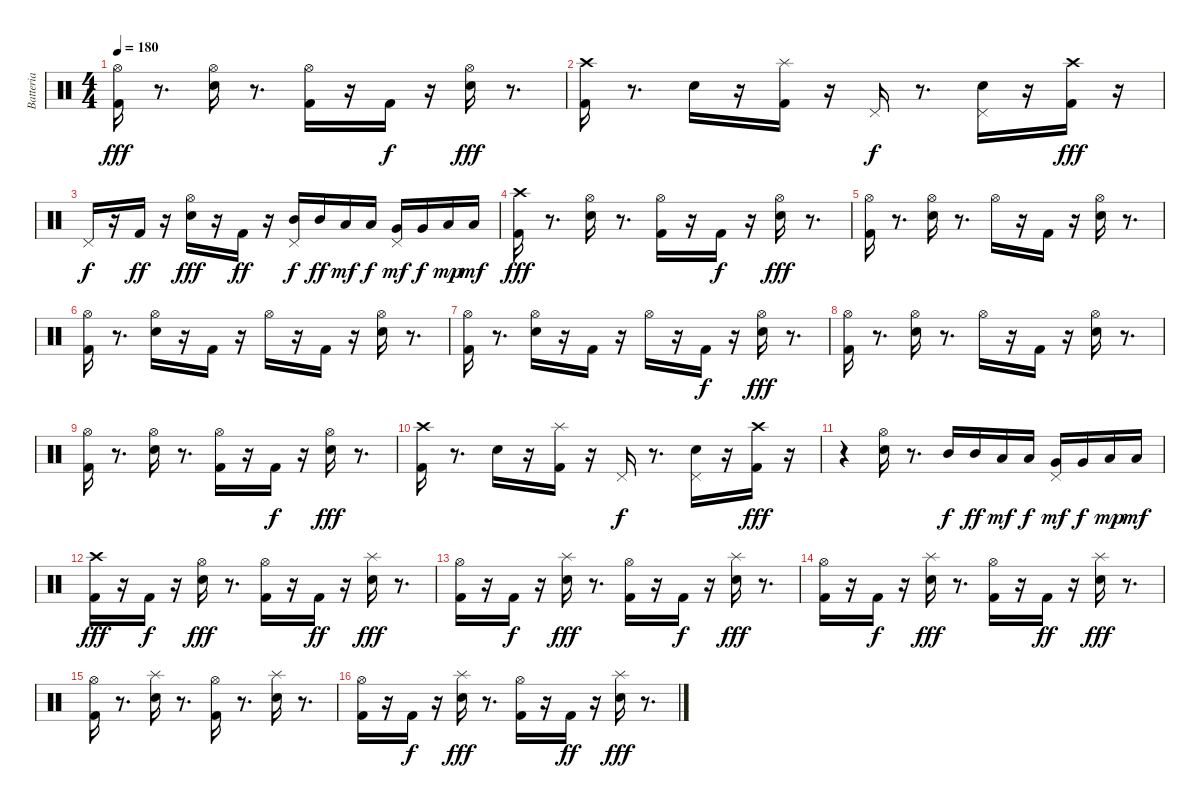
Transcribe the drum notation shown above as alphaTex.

\track ("Batteria" "Batteria") {instrument percussion}
\staff {score}
\articulation defaults
\ts (4 4)
\tempo 180
\clef neutral
\ks c
("Hi-Hat (open)" "Kick (hit) 2").16{dy fff} r.8{d} ("Electric Snare (hit)" "Hi-Hat (open)").16 r.8{d} ("Hi-Hat (open)" "Kick (hit) 2").16 r.16 "Kick (hit) 2".16{dy f} r.16 ("Hi-Hat (open)" "Electric Snare (hit)").16{dy fff} r.8{d} |
("Kick (hit) 2" "Crash high (hit)").16 r.8{d} "Electric Snare (hit)".16 r.16 ("Kick (hit) 2" "Splash (hit)").16 r.16 "Pedal Hi-Hat (hit)".16{dy f} r.8{d} ("Electric Snare (hit)" "Pedal Hi-Hat (hit)").16 r.16 ("Kick (hit) 2" "Crash high (hit)").16{dy fff} r.16 |
"Pedal Hi-Hat (hit)".16{dy f} r.16 "Kick (hit) 2".16{dy ff} r.16 ("Hi-Hat (open)" "Electric Snare (hit)").16{dy fff} r.16 "Kick (hit) 2".16{dy ff} r.16 ("Mid Tom (hit)" "Pedal Hi-Hat (hit)").16{dy f} "Mid Tom (hit)".16{dy ff} "Low Tom (hit)".16{dy mf} "Low Tom (hit)".16{dy f} ("Very Low Tom (hit)" "Pedal Hi-Hat (hit)").16{dy mf} "Very Low Tom (hit)".16{dy f} "Low Floor Tom (hit)".16{dy mp} "Low Floor Tom (hit)".16{dy mf} |
("Crash high (hit)" "Kick (hit) 2").16{dy fff} r.8{d} ("Electric Snare (hit)" "Hi-Hat (open)").16 r.8{d} ("Kick (hit) 2" "Hi-Hat (open)").16 r.16 "Kick (hit) 2".16{dy f} r.16 ("Electric Snare (hit)" "Hi-Hat (open)").16{dy fff} r.8{d} |
("Kick (hit) 2" "Hi-Hat (open)").16 r.8{d} ("Electric Snare (hit)" "Hi-Hat (open)").16 r.8{d} "Hi-Hat (open)".16 r.16 "Kick (hit) 2".16 r.16 ("Hi-Hat (open)" "Electric Snare (hit)").16 r.8{d} |
("Kick (hit) 2" "Hi-Hat (open)").16 r.8{d} ("Hi-Hat (open)" "Electric Snare (hit)").16 r.16 "Kick (hit) 2".16 r.16 "Hi-Hat (open)".16 r.16 "Kick (hit) 2".16 r.16 ("Electric Snare (hit)" "Hi-Hat (open)").16 r.8{d} |
("Hi-Hat (open)" "Kick (hit) 2").16 r.8{d} ("Electric Snare (hit)" "Hi-Hat (open)").16 r.16 "Kick (hit) 2".16 r.16 "Hi-Hat (open)".16 r.16 "Kick (hit) 2".16{dy f} r.16 ("Electric Snare (hit)" "Hi-Hat (open)").16{dy fff} r.8{d} |
("Kick (hit) 2" "Hi-Hat (open)").16 r.8{d} ("Electric Snare (hit)" "Hi-Hat (open)").16 r.8{d} "Hi-Hat (open)".16 r.16 "Kick (hit) 2".16 r.16 ("Hi-Hat (open)" "Electric Snare (hit)").16 r.8{d} |
("Kick (hit) 2" "Hi-Hat (open)").16 r.8{d} ("Hi-Hat (open)" "Electric Snare (hit)").16 r.8{d} ("Kick (hit) 2" "Hi-Hat (open)").16 r.16 "Kick (hit) 2".16{dy f} r.16 ("Electric Snare (hit)" "Hi-Hat (open)").16{dy fff} r.8{d} |
("Crash high (hit)" "Kick (hit) 2").16 r.8{d} "Electric Snare (hit)".16 r.16 ("Splash (hit)" "Kick (hit) 2").16 r.16 "Pedal Hi-Hat (hit)".16{dy f} r.8{d} ("Pedal Hi-Hat (hit)" "Electric Snare (hit)").16 r.16 ("Crash high (hit)" "Kick (hit) 2").16{dy fff} r.16 |
r.4 ("Electric Snare (hit)" "Hi-Hat (open)").16 r.8{d} "Mid Tom (hit)".16{dy f} "Mid Tom (hit)".16{dy ff} "Low Tom (hit)".16{dy mf} "Low Tom (hit)".16{dy f} ("Very Low Tom (hit)" "Pedal Hi-Hat (hit)").16{dy mf} "Very Low Tom (hit)".16{dy f} "Low Floor Tom (hit)".16{dy mp} "Low Floor Tom (hit)".16{dy mf} |
("Crash high (hit)" "Kick (hit) 2").16{dy fff} r.16 "Kick (hit) 2".16{dy f} r.16 ("Electric Snare (hit)" "Hi-Hat (open)").16{dy fff} r.8{d} ("Hi-Hat (open)" "Kick (hit) 2").16 r.16 "Kick (hit) 2".16{dy ff} r.16 ("Splash (hit)" "Electric Snare (hit)").16{dy fff} r.8{d} |
("Hi-Hat (open)" "Kick (hit) 2").16 r.16 "Kick (hit) 2".16{dy f} r.16 ("Splash (hit)" "Electric Snare (hit)").16{dy fff} r.8{d} ("Kick (hit) 2" "Hi-Hat (open)").16 r.16 "Kick (hit) 2".16{dy f} r.16 ("Splash (hit)" "Electric Snare (hit)").16{dy fff} r.8{d} |
("Hi-Hat (open)" "Kick (hit) 2").16 r.16 "Kick (hit) 2".16{dy f} r.16 ("Splash (hit)" "Electric Snare (hit)").16{dy fff} r.8{d} ("Hi-Hat (open)" "Kick (hit) 2").16 r.16 "Kick (hit) 2".16{dy ff} r.16 ("Splash (hit)" "Electric Snare (hit)").16{dy fff} r.8{d} |
("Kick (hit) 2" "Hi-Hat (open)").16 r.8{d} ("Splash (hit)" "Electric Snare (hit)").16 r.8{d} ("Hi-Hat (open)" "Kick (hit) 2").16 r.8{d} ("Splash (hit)" "Electric Snare (hit)").16 r.8{d} |
("Kick (hit) 2" "Hi-Hat (open)").16 r.16 "Kick (hit) 2".16{dy f} r.16 ("Splash (hit)" "Electric Snare (hit)").16{dy fff} r.8{d} ("Hi-Hat (open)" "Kick (hit) 2").16 r.16 "Kick (hit) 2".16{dy ff} r.16 ("Splash (hit)" "Electric Snare (hit)").16{dy fff} r.8{d}
